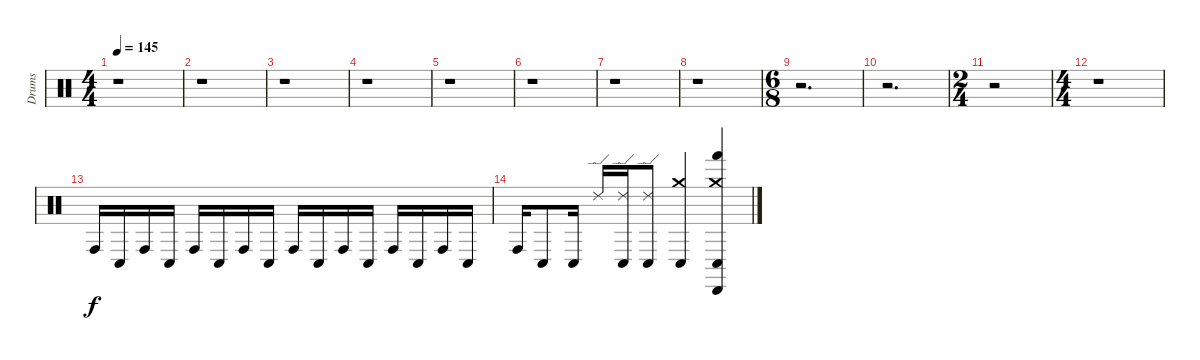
\track ("Drums" "Drums") {instrument percussion}
\staff {score}
\articulation defaults
\ts (4 4)
\tempo 145
\clef neutral
\ks c
r.1{dy mf} |
r.1 |
r.1 |
r.1 |
r.1 |
r.1 |
r.1 |
r.1 |
\ts (6 8)
r.2{d} |
r.2{d} |
\ts (2 4)
r.2 |
\ts (4 4)
r.1 |
"Conga high (hit)".16{dy f} "Conga low (hit)".16 "Conga high (hit)".16 "Conga low (hit)".16 "Conga high (hit)".16 "Conga low (hit)".16 "Conga high (hit)".16 "Conga low (hit)".16 "Conga high (hit)".16 "Conga low (hit)".16 "Conga high (hit)".16 "Conga low (hit)".16 "Conga high (hit)".16 "Conga low (hit)".16 "Conga high (hit)".16 "Conga low (hit)".16 |
"Conga high (hit)".16 "Conga low (hit)".8 "Conga low (hit)".16 "Ride (edge) 2".16 ("Conga low (hit)" "Ride (edge) 2").16 ("Conga low (hit)" "Ride (edge) 2").8 ("Crash medium (hit)" "Conga low (hit)").4 ("Crash medium (hit)" "Hand (hit)" "Conga low (hit)" "Cabasa (hit)").4
